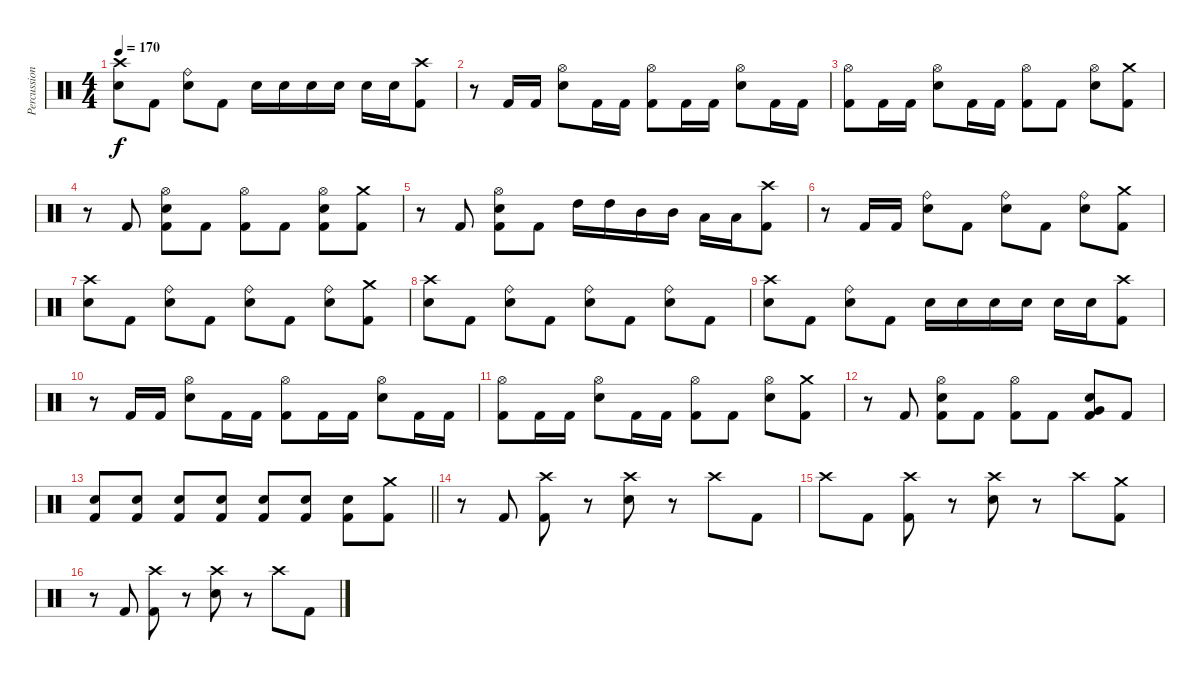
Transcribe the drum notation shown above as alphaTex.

\track ("Percussion" "Percussion") {instrument percussion}
\staff {score}
\articulation defaults
\ts (4 4)
\tempo 170
\clef neutral
\ks c
("Crash high (hit)" "Snare (hit) 2").8{dy f} "Kick (hit) 2".8 ("Ride (bell)" "Snare (hit) 2").8 "Kick (hit) 2".8 "Snare (hit) 2".16 "Snare (hit) 2".16 "Snare (hit) 2".16 "Snare (hit) 2".16 "Snare (hit) 2".16 "Snare (hit) 2".16 ("Crash high (hit)" "Kick (hit) 2").8 |
r.8 "Kick (hit) 2".16 "Kick (hit) 2".16 ("Hi-Hat (open)" "Snare (hit) 2").8 "Kick (hit) 2".16 "Kick (hit) 2".16 ("Hi-Hat (open)" "Kick (hit) 2").8 "Kick (hit) 2".16 "Kick (hit) 2".16 ("Hi-Hat (open)" "Snare (hit) 2").8 "Kick (hit) 2".16 "Kick (hit) 2".16 |
("Hi-Hat (open)" "Kick (hit) 2").8 "Kick (hit) 2".16 "Kick (hit) 2".16 ("Hi-Hat (open)" "Snare (hit) 2").8 "Kick (hit) 2".16 "Kick (hit) 2".16 ("Hi-Hat (open)" "Kick (hit) 2").8 "Kick (hit) 2".8 ("Hi-Hat (open)" "Snare (hit) 2").8 ("Crash medium (hit)" "Kick (hit) 2").8 |
r.8 "Kick (hit) 2".8 ("Hi-Hat (open)" "Snare (hit) 2" "Kick (hit) 2").8 "Kick (hit) 2".8 ("Hi-Hat (open)" "Kick (hit) 2").8 "Kick (hit) 2".8 ("Hi-Hat (open)" "Snare (hit) 2" "Kick (hit) 2").8 ("Crash medium (hit)" "Kick (hit) 2").8 |
r.8 "Kick (hit) 2".8 ("Hi-Hat (open)" "Snare (hit) 2" "Kick (hit) 2").8 "Kick (hit) 2".8 "High Tom (hit)".16 "High Tom (hit)".16 "Mid Tom (hit)".16 "Mid Tom (hit)".16 "Low Tom (hit)".16 "Low Tom (hit)".16 ("Crash high (hit)" "Kick (hit) 2").8 |
r.8 "Kick (hit) 2".16 "Kick (hit) 2".16 ("Ride (bell)" "Snare (hit) 2").8 "Kick (hit) 2".8 ("Ride (bell)" "Snare (hit) 2").8 "Kick (hit) 2".8 ("Ride (bell)" "Snare (hit) 2").8 ("Crash medium (hit)" "Kick (hit) 2").8 |
("Crash high (hit)" "Snare (hit) 2").8 "Kick (hit) 2".8 ("Ride (bell)" "Snare (hit) 2").8 "Kick (hit) 2".8 ("Ride (bell)" "Snare (hit) 2").8 "Kick (hit) 2".8 ("Ride (bell)" "Snare (hit) 2").8 ("Crash medium (hit)" "Kick (hit) 2").8 |
("Crash high (hit)" "Snare (hit) 2").8 "Kick (hit) 2".8 ("Ride (bell)" "Snare (hit) 2").8 "Kick (hit) 2".8 ("Ride (bell)" "Snare (hit) 2").8 "Kick (hit) 2".8 ("Ride (bell)" "Snare (hit) 2").8 "Kick (hit) 2".8 |
("Crash high (hit)" "Snare (hit) 2").8 "Kick (hit) 2".8 ("Ride (bell)" "Snare (hit) 2").8 "Kick (hit) 2".8 "Snare (hit) 2".16 "Snare (hit) 2".16 "Snare (hit) 2".16 "Snare (hit) 2".16 "Snare (hit) 2".16 "Snare (hit) 2".16 ("Crash high (hit)" "Kick (hit) 2").8 |
r.8 "Kick (hit) 2".16 "Kick (hit) 2".16 ("Hi-Hat (open)" "Snare (hit) 2").8 "Kick (hit) 2".16 "Kick (hit) 2".16 ("Hi-Hat (open)" "Kick (hit) 2").8 "Kick (hit) 2".16 "Kick (hit) 2".16 ("Hi-Hat (open)" "Snare (hit) 2").8 "Kick (hit) 2".16 "Kick (hit) 2".16 |
("Hi-Hat (open)" "Kick (hit) 2").8 "Kick (hit) 2".16 "Kick (hit) 2".16 ("Hi-Hat (open)" "Snare (hit) 2").8 "Kick (hit) 2".16 "Kick (hit) 2".16 ("Hi-Hat (open)" "Kick (hit) 2").8 "Kick (hit) 2".8 ("Hi-Hat (open)" "Snare (hit) 2").8 ("Crash medium (hit)" "Kick (hit) 2").8 |
r.8 "Kick (hit) 2".8 ("Hi-Hat (open)" "Snare (hit) 2" "Kick (hit) 2").8 "Kick (hit) 2".8 ("Hi-Hat (open)" "Kick (hit) 2").8 "Kick (hit) 2".8 ("Very Low Tom (hit)" "Snare (hit) 2" "Kick (hit) 2").8 "Kick (hit) 2".8 |
\barLineRight lightlight
("Snare (hit) 2" "Kick (hit) 2").8 ("Snare (hit) 2" "Kick (hit) 2").8 ("Snare (hit) 2" "Kick (hit) 2").8 ("Snare (hit) 2" "Kick (hit) 2").8 ("Snare (hit) 2" "Kick (hit) 2").8 ("Snare (hit) 2" "Kick (hit) 2").8 ("Snare (hit) 2" "Kick (hit) 2").8 ("Crash medium (hit)" "Kick (hit) 2").8 |
\section ("" "")
r.8 "Kick (hit) 2".8 ("Crash high (hit)" "Kick (hit) 2").8 r.8 ("Crash high (hit)" "Snare (hit) 2").8 r.8 "Crash high (hit)".8 "Kick (hit) 2".8 |
"Crash high (hit)".8 "Kick (hit) 2".8 ("Crash high (hit)" "Kick (hit) 2").8 r.8 ("Crash high (hit)" "Snare (hit) 2").8 r.8 "Crash high (hit)".8 ("Crash medium (hit)" "Kick (hit) 2").8 |
r.8 "Kick (hit) 2".8 ("Crash high (hit)" "Kick (hit) 2").8 r.8 ("Crash high (hit)" "Snare (hit) 2").8 r.8 "Crash high (hit)".8 "Kick (hit) 2".8
